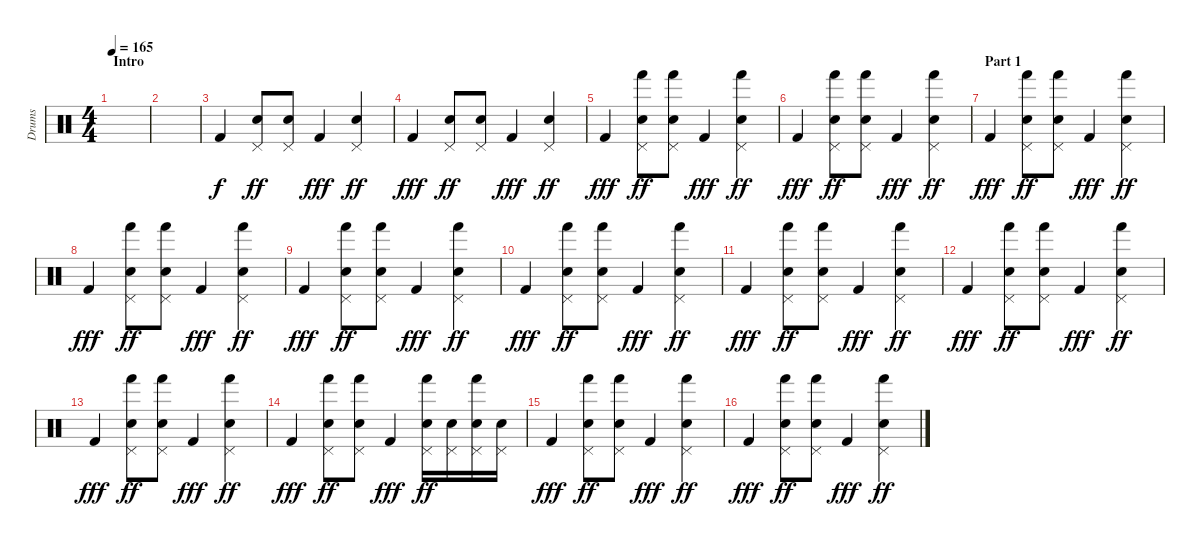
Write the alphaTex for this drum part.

\track ("Drums" "Drums") {instrument percussion}
\staff {score}
\articulation defaults
\ts (4 4)
\section ("" "Intro")
\tempo 165
\clef neutral
\ks c
|
|
"Kick (hit) 2".4 ("Pedal Hi-Hat (hit)" "Electric Snare (hit)").8{dy ff} ("Pedal Hi-Hat (hit)" "Electric Snare (hit)").8 "Kick (hit) 2".4{dy fff} ("Pedal Hi-Hat (hit)" "Electric Snare (hit)").4{dy ff} |
"Kick (hit) 2".4{dy fff} ("Pedal Hi-Hat (hit)" "Electric Snare (hit)").8{dy ff} ("Pedal Hi-Hat (hit)" "Electric Snare (hit)").8 "Kick (hit) 2".4{dy fff} ("Pedal Hi-Hat (hit)" "Electric Snare (hit)").4{dy ff} |
"Kick (hit) 2".4{dy fff} ("Pedal Hi-Hat (hit)" "Hand (hit)" "Electric Snare (hit)").8{dy ff} ("Pedal Hi-Hat (hit)" "Hand (hit)" "Electric Snare (hit)").8 "Kick (hit) 2".4{dy fff} ("Pedal Hi-Hat (hit)" "Hand (hit)" "Electric Snare (hit)").4{dy ff} |
"Kick (hit) 2".4{dy fff} ("Pedal Hi-Hat (hit)" "Hand (hit)" "Electric Snare (hit)").8{dy ff} ("Pedal Hi-Hat (hit)" "Hand (hit)" "Electric Snare (hit)").8 "Kick (hit) 2".4{dy fff} ("Pedal Hi-Hat (hit)" "Hand (hit)" "Electric Snare (hit)").4{dy ff} |
\section ("" "Part 1")
"Kick (hit) 2".4{dy fff} ("Pedal Hi-Hat (hit)" "Hand (hit)" "Electric Snare (hit)").8{dy ff} ("Pedal Hi-Hat (hit)" "Hand (hit)" "Electric Snare (hit)").8 "Kick (hit) 2".4{dy fff} ("Pedal Hi-Hat (hit)" "Hand (hit)" "Electric Snare (hit)").4{dy ff} |
"Kick (hit) 2".4{dy fff} ("Pedal Hi-Hat (hit)" "Hand (hit)" "Electric Snare (hit)").8{dy ff} ("Pedal Hi-Hat (hit)" "Hand (hit)" "Electric Snare (hit)").8 "Kick (hit) 2".4{dy fff} ("Pedal Hi-Hat (hit)" "Hand (hit)" "Electric Snare (hit)").4{dy ff} |
"Kick (hit) 2".4{dy fff} ("Pedal Hi-Hat (hit)" "Hand (hit)" "Electric Snare (hit)").8{dy ff} ("Pedal Hi-Hat (hit)" "Hand (hit)" "Electric Snare (hit)").8 "Kick (hit) 2".4{dy fff} ("Pedal Hi-Hat (hit)" "Hand (hit)" "Electric Snare (hit)").4{dy ff} |
"Kick (hit) 2".4{dy fff} ("Pedal Hi-Hat (hit)" "Hand (hit)" "Electric Snare (hit)").8{dy ff} ("Pedal Hi-Hat (hit)" "Hand (hit)" "Electric Snare (hit)").8 "Kick (hit) 2".4{dy fff} ("Pedal Hi-Hat (hit)" "Hand (hit)" "Electric Snare (hit)").4{dy ff} |
"Kick (hit) 2".4{dy fff} ("Pedal Hi-Hat (hit)" "Hand (hit)" "Electric Snare (hit)").8{dy ff} ("Pedal Hi-Hat (hit)" "Hand (hit)" "Electric Snare (hit)").8 "Kick (hit) 2".4{dy fff} ("Pedal Hi-Hat (hit)" "Hand (hit)" "Electric Snare (hit)").4{dy ff} |
"Kick (hit) 2".4{dy fff} ("Pedal Hi-Hat (hit)" "Hand (hit)" "Electric Snare (hit)").8{dy ff} ("Pedal Hi-Hat (hit)" "Hand (hit)" "Electric Snare (hit)").8 "Kick (hit) 2".4{dy fff} ("Pedal Hi-Hat (hit)" "Hand (hit)" "Electric Snare (hit)").4{dy ff} |
"Kick (hit) 2".4{dy fff} ("Pedal Hi-Hat (hit)" "Hand (hit)" "Electric Snare (hit)").8{dy ff} ("Pedal Hi-Hat (hit)" "Hand (hit)" "Electric Snare (hit)").8 "Kick (hit) 2".4{dy fff} ("Pedal Hi-Hat (hit)" "Hand (hit)" "Electric Snare (hit)").4{dy ff} |
"Kick (hit) 2".4{dy fff} ("Pedal Hi-Hat (hit)" "Hand (hit)" "Electric Snare (hit)").8{dy ff} ("Pedal Hi-Hat (hit)" "Hand (hit)" "Electric Snare (hit)").8 "Kick (hit) 2".4{dy fff} ("Pedal Hi-Hat (hit)" "Hand (hit)" "Electric Snare (hit)").16{dy ff} ("Pedal Hi-Hat (hit)" "Electric Snare (hit)").16 ("Pedal Hi-Hat (hit)" "Hand (hit)" "Electric Snare (hit)").16 ("Pedal Hi-Hat (hit)" "Electric Snare (hit)").16 |
"Kick (hit) 2".4{dy fff} ("Pedal Hi-Hat (hit)" "Hand (hit)" "Electric Snare (hit)").8{dy ff} ("Pedal Hi-Hat (hit)" "Hand (hit)" "Electric Snare (hit)").8 "Kick (hit) 2".4{dy fff} ("Pedal Hi-Hat (hit)" "Hand (hit)" "Electric Snare (hit)").4{dy ff} |
"Kick (hit) 2".4{dy fff} ("Pedal Hi-Hat (hit)" "Hand (hit)" "Electric Snare (hit)").8{dy ff} ("Pedal Hi-Hat (hit)" "Hand (hit)" "Electric Snare (hit)").8 "Kick (hit) 2".4{dy fff} ("Pedal Hi-Hat (hit)" "Hand (hit)" "Electric Snare (hit)").4{dy ff}
